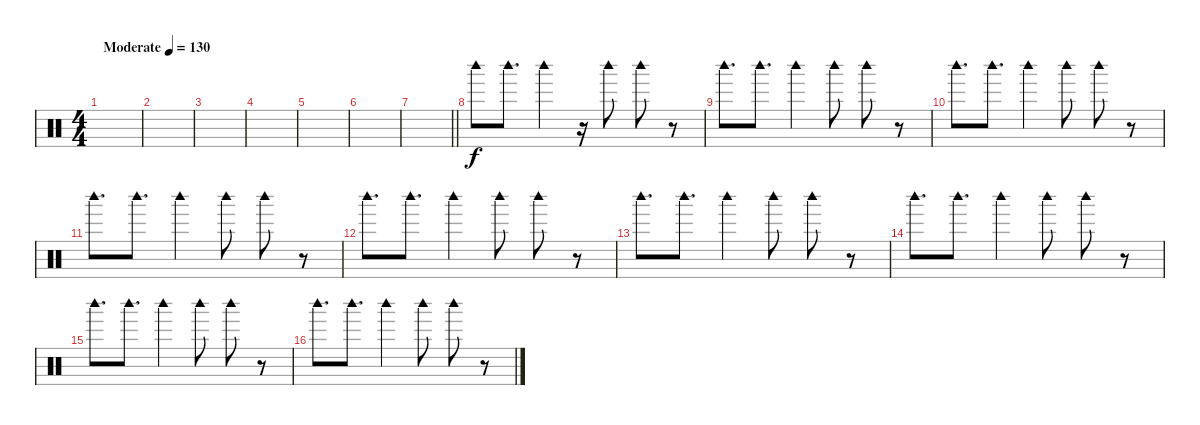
\track "" {instrument percussion}
\staff {score}
\articulation defaults
\ts (4 4)
\tempo (130 "Moderate")
\clef neutral
\ks c
|
|
|
|
|
|
\barLineRight lightlight
|
\section ("" "")
"Woodblock high (hit)".8 "Woodblock high (hit)".8{d} "Woodblock high (hit)".4 r.16 "Woodblock high (hit)".8 "Woodblock high (hit)".8 r.8 |
"Woodblock high (hit)".8{d} "Woodblock high (hit)".8{d} "Woodblock high (hit)".4 "Woodblock high (hit)".8 "Woodblock high (hit)".8 r.8 |
"Woodblock high (hit)".8{d} "Woodblock high (hit)".8{d} "Woodblock high (hit)".4 "Woodblock high (hit)".8 "Woodblock high (hit)".8 r.8 |
"Woodblock high (hit)".8{d} "Woodblock high (hit)".8{d} "Woodblock high (hit)".4 "Woodblock high (hit)".8 "Woodblock high (hit)".8 r.8 |
"Woodblock high (hit)".8{d} "Woodblock high (hit)".8{d} "Woodblock high (hit)".4 "Woodblock high (hit)".8 "Woodblock high (hit)".8 r.8 |
"Woodblock high (hit)".8{d} "Woodblock high (hit)".8{d} "Woodblock high (hit)".4 "Woodblock high (hit)".8 "Woodblock high (hit)".8 r.8 |
"Woodblock high (hit)".8{d} "Woodblock high (hit)".8{d} "Woodblock high (hit)".4 "Woodblock high (hit)".8 "Woodblock high (hit)".8 r.8 |
"Woodblock high (hit)".8{d} "Woodblock high (hit)".8{d} "Woodblock high (hit)".4 "Woodblock high (hit)".8 "Woodblock high (hit)".8 r.8 |
"Woodblock high (hit)".8{d} "Woodblock high (hit)".8{d} "Woodblock high (hit)".4 "Woodblock high (hit)".8 "Woodblock high (hit)".8 r.8
